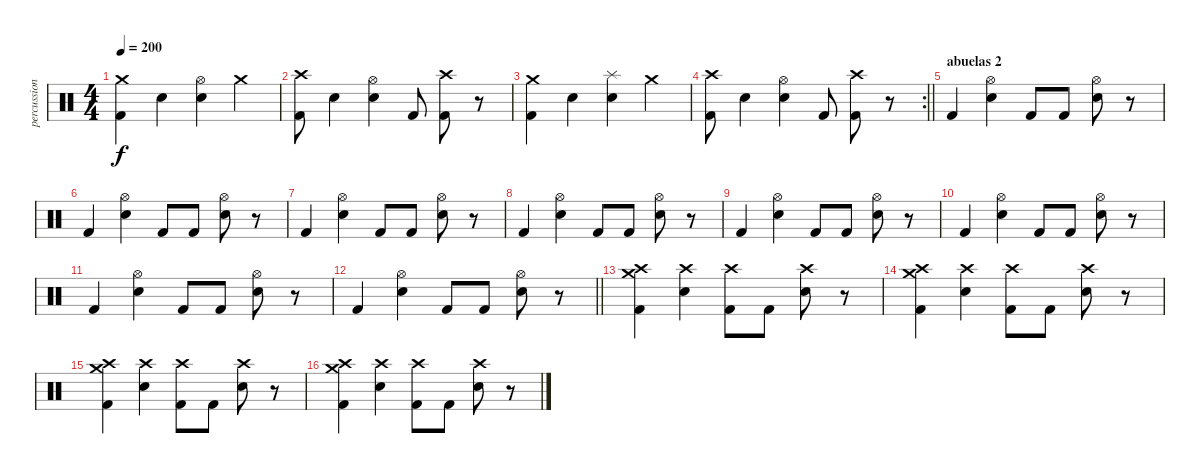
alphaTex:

\track ("percussion" "percussion") {instrument percussion}
\staff {score}
\articulation defaults
\ts (4 4)
\tempo 200
\clef neutral
\ks c
("Crash medium (hit)" "Kick (hit) 2").4{dy f} "Electric Snare (hit)".4 ("Electric Snare (hit)" "Hi-Hat (open)").4 "Crash medium (hit)".4 |
("Kick (hit) 2" "Crash high (hit)").8 "Electric Snare (hit)".4 ("Electric Snare (hit)" "Hi-Hat (open)").4 "Kick (hit) 2".8 ("Kick (hit) 2" "Crash high (hit)").8 r.8 |
("Crash medium (hit)" "Kick (hit) 2").4 "Electric Snare (hit)".4 ("Electric Snare (hit)" "Splash (hit)").4 "Crash medium (hit)".4 |
\rc 2
\barLineRight lightlight
("Kick (hit) 2" "Crash high (hit)").8 "Electric Snare (hit)".4 ("Electric Snare (hit)" "Hi-Hat (open)").4 "Kick (hit) 2".8 ("Kick (hit) 2" "Crash high (hit)").8 r.8 |
\section ("" "abuelas 2")
"Kick (hit) 2".4 ("Electric Snare (hit)" "Hi-Hat (open)").4 "Kick (hit) 2".8 "Kick (hit) 2".8 ("Electric Snare (hit)" "Hi-Hat (open)").8 r.8 |
"Kick (hit) 2".4 ("Electric Snare (hit)" "Hi-Hat (open)").4 "Kick (hit) 2".8 "Kick (hit) 2".8 ("Electric Snare (hit)" "Hi-Hat (open)").8 r.8 |
"Kick (hit) 2".4 ("Electric Snare (hit)" "Hi-Hat (open)").4 "Kick (hit) 2".8 "Kick (hit) 2".8 ("Electric Snare (hit)" "Hi-Hat (open)").8 r.8 |
"Kick (hit) 2".4 ("Electric Snare (hit)" "Hi-Hat (open)").4 "Kick (hit) 2".8 "Kick (hit) 2".8 ("Electric Snare (hit)" "Hi-Hat (open)").8 r.8 |
"Kick (hit) 2".4 ("Electric Snare (hit)" "Hi-Hat (open)").4 "Kick (hit) 2".8 "Kick (hit) 2".8 ("Electric Snare (hit)" "Hi-Hat (open)").8 r.8 |
"Kick (hit) 2".4 ("Electric Snare (hit)" "Hi-Hat (open)").4 "Kick (hit) 2".8 "Kick (hit) 2".8 ("Electric Snare (hit)" "Hi-Hat (open)").8 r.8 |
"Kick (hit) 2".4 ("Electric Snare (hit)" "Hi-Hat (open)").4 "Kick (hit) 2".8 "Kick (hit) 2".8 ("Electric Snare (hit)" "Hi-Hat (open)").8 r.8 |
\barLineRight lightlight "Kick (hit) 2".4
("Electric Snare (hit)" "Hi-Hat (open)").4 "Kick (hit) 2".8 "Kick (hit) 2".8 ("Electric Snare (hit)" "Hi-Hat (open)").8 r.8 |
("Kick (hit) 2" "Crash medium (hit)" "Crash high (hit)").4 ("Electric Snare (hit)" "Crash high (hit)").4 ("Kick (hit) 2" "Crash high (hit)").8 "Kick (hit) 2".8 ("Electric Snare (hit)" "Crash high (hit)").8 r.8 |
("Kick (hit) 2" "Crash medium (hit)" "Crash high (hit)").4 ("Electric Snare (hit)" "Crash high (hit)").4 ("Kick (hit) 2" "Crash high (hit)").8 "Kick (hit) 2".8 ("Electric Snare (hit)" "Crash high (hit)").8 r.8 |
("Kick (hit) 2" "Crash medium (hit)" "Crash high (hit)").4 ("Electric Snare (hit)" "Crash high (hit)").4 ("Kick (hit) 2" "Crash high (hit)").8 "Kick (hit) 2".8 ("Electric Snare (hit)" "Crash high (hit)").8 r.8 |
("Kick (hit) 2" "Crash medium (hit)" "Crash high (hit)").4 ("Electric Snare (hit)" "Crash high (hit)").4 ("Kick (hit) 2" "Crash high (hit)").8 "Kick (hit) 2".8 ("Electric Snare (hit)" "Crash high (hit)").8 r.8
